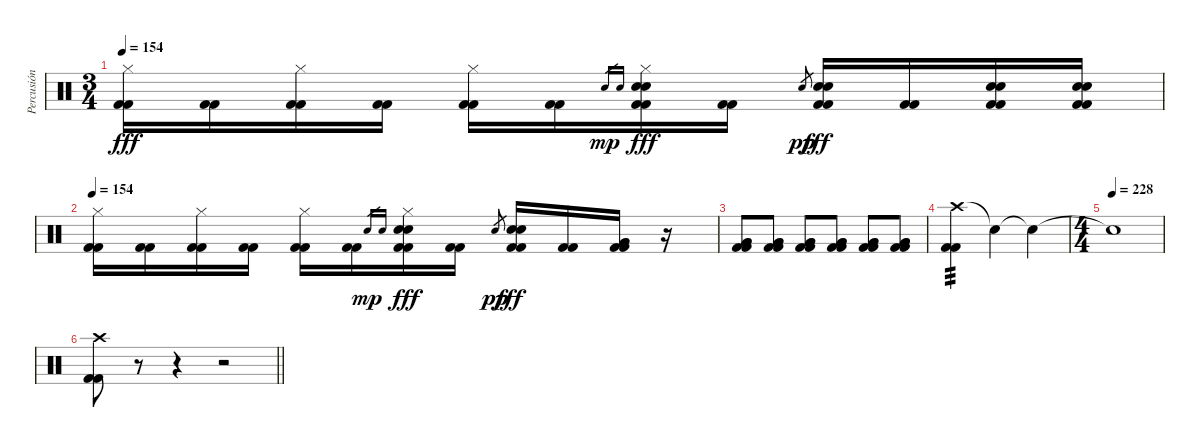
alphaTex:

\track ("Percusión" "Percusión") {instrument percussion}
\staff {score}
\articulation defaults
\ts (3 4)
\tempo 154
\clef neutral
\ks c
("Hi-Hat (closed)" "Kick (hit) 2" "Kick (hit) 2").16{dy fff} ("Kick (hit) 2" "Kick (hit) 2").16 ("Hi-Hat (closed)" "Kick (hit) 2" "Kick (hit) 2").16 ("Kick (hit) 2" "Kick (hit) 2").16 ("Hi-Hat (closed)" "Kick (hit) 2" "Kick (hit) 2").16 ("Kick (hit) 2" "Kick (hit) 2").16 "Electric Snare (hit)".16{gr dy mp} "Snare (hit) 2".16{gr} ("Hi-Hat (closed)" "Electric Snare (hit)" "Snare (hit) 2" "Kick (hit) 2" "Kick (hit) 2").16{dy fff} ("Kick (hit) 2" "Kick (hit) 2").16 "Snare (hit) 2".8{gr dy pp} ("Electric Snare (hit)" "Snare (hit) 2" "Kick (hit) 2" "Kick (hit) 2").16{dy fff} ("Kick (hit) 2" "Kick (hit) 2").16 ("Electric Snare (hit)" "Snare (hit) 2" "Kick (hit) 2" "Kick (hit) 2").16 ("Electric Snare (hit)" "Snare (hit) 2" "Kick (hit) 2" "Kick (hit) 2").16 |
\tempo 154
("Hi-Hat (closed)" "Kick (hit) 2" "Kick (hit) 2").16 ("Kick (hit) 2" "Kick (hit) 2").16 ("Hi-Hat (closed)" "Kick (hit) 2" "Kick (hit) 2").16 ("Kick (hit) 2" "Kick (hit) 2").16 ("Hi-Hat (closed)" "Kick (hit) 2" "Kick (hit) 2").16 ("Kick (hit) 2" "Kick (hit) 2").16 "Electric Snare (hit)".16{gr dy mp} "Snare (hit) 2".16{gr} ("Hi-Hat (closed)" "Electric Snare (hit)" "Snare (hit) 2" "Kick (hit) 2" "Kick (hit) 2").16{dy fff} ("Kick (hit) 2" "Kick (hit) 2").16 "Snare (hit) 2".8{gr dy pp} ("Electric Snare (hit)" "Snare (hit) 2" "Kick (hit) 2" "Kick (hit) 2").16{dy fff} ("Kick (hit) 2" "Kick (hit) 2").16 ("Very Low Tom (hit)" "Very Low Tom (hit)" "Kick (hit) 2" "Kick (hit) 2").16 r.16 |
("Very Low Tom (hit)" "Very Low Tom (hit)" "Kick (hit) 2" "Kick (hit) 2").8 ("Very Low Tom (hit)" "Very Low Tom (hit)" "Kick (hit) 2" "Kick (hit) 2").8 ("Very Low Tom (hit)" "Very Low Tom (hit)" "Kick (hit) 2" "Kick (hit) 2").8 ("Very Low Tom (hit)" "Very Low Tom (hit)" "Kick (hit) 2" "Kick (hit) 2").8 ("Very Low Tom (hit)" "Very Low Tom (hit)" "Kick (hit) 2" "Kick (hit) 2").8 ("Very Low Tom (hit)" "Very Low Tom (hit)" "Kick (hit) 2" "Kick (hit) 2").8 |
("Crash high (hit)" "Kick (hit) 2" "Kick (hit) 2").4{tp 3} "Snare (hit)"{t}.4 "Snare (hit)"{t}.4 |
\ts (4 4)
\tempo (228)
"Snare (hit)"{t}.1 |
\barLineRight lightlight
("Crash high (hit)" "Kick (hit) 2" "Kick (hit) 2").8 r.8 r.4 r.2
